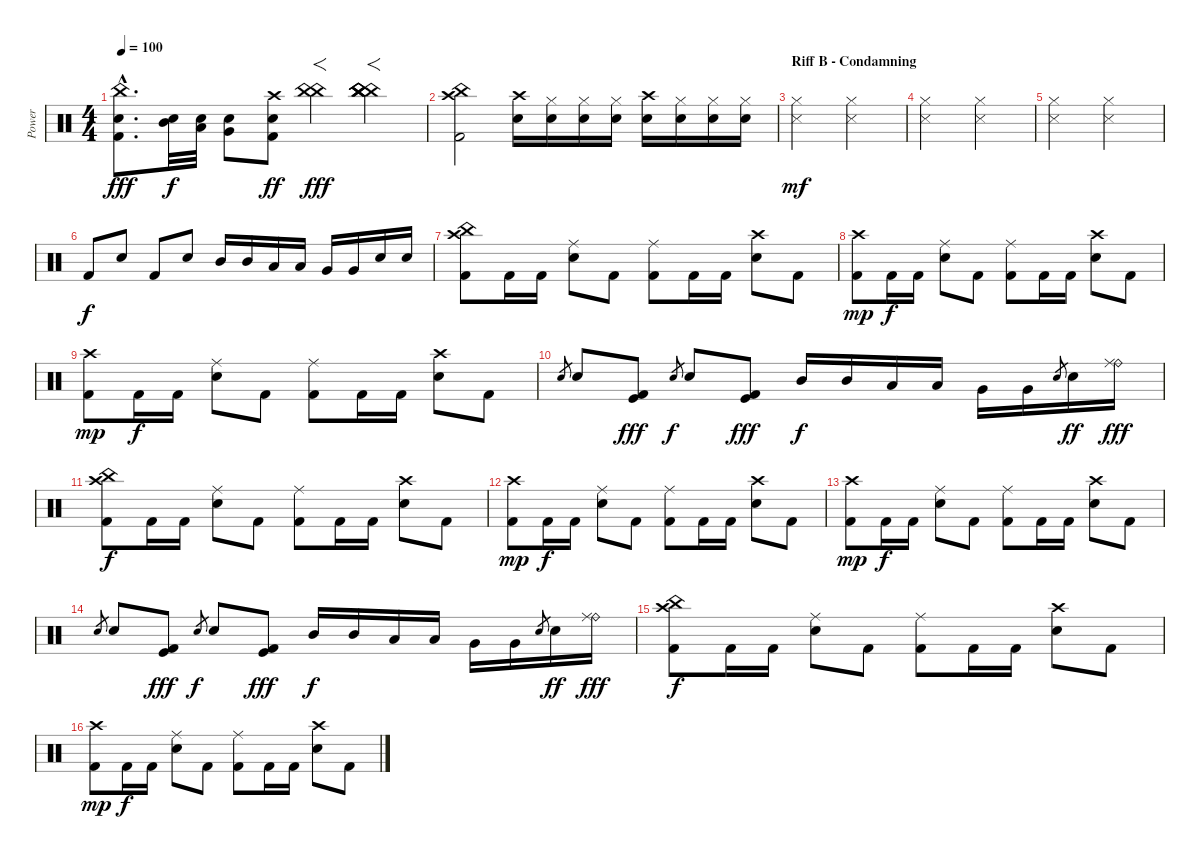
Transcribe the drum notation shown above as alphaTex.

\track ("Power" "Power") {instrument percussion}
\staff {score}
\articulation defaults
\ts (4 4)
\tempo 100
\clef neutral
\ks c
("China (hit)"{hac} "Electric Snare (hit)"{hac} "Kick (hit) 2"{hac}).8{d dy fff} ("Mid Tom (hit)" "Electric Snare (hit)").32{dy f} ("Low Tom (hit)" "Electric Snare (hit)").32 ("Very Low Tom (hit)" "Electric Snare (hit)").8 ("Crash high (hit)" "Electric Snare (hit)" "Kick (hit) 2").8{dy ff} ("China (hit)" "China (hit)").4{f dy fff} ("China (hit)" "China (hit)" "China (hit)" "China (hit)" "China (hit)").4{f} |
("China (hit)" "Crash high (hit)" "Kick (hit) 2").2 ("Crash high (hit)" "Electric Snare (hit)").16 ("Hi-Hat (closed)" "Electric Snare (hit)").16 ("Hi-Hat (closed)" "Electric Snare (hit)").16 ("Hi-Hat (closed)" "Electric Snare (hit)").16 ("Crash high (hit)" "Electric Snare (hit)").16 ("Hi-Hat (closed)" "Electric Snare (hit)").16 ("Hi-Hat (closed)" "Electric Snare (hit)").16 ("Hi-Hat (closed)" "Electric Snare (hit)").16 |
\section ("" "Riff B - Condamning")
("Hi-Hat (closed)" "Snare (side stick) 3").2{dy mf} ("Hi-Hat (closed)" "Snare (side stick) 3").2 |
("Hi-Hat (closed)" "Snare (side stick) 3").2 ("Hi-Hat (closed)" "Snare (side stick) 3").2 |
("Hi-Hat (closed)" "Snare (side stick) 3").2 ("Hi-Hat (closed)" "Snare (side stick) 3").2 |
"Kick (hit) 2".8{dy f} "Electric Snare (hit)".8 "Kick (hit) 2".8 "Electric Snare (hit)".8 "Mid Tom (hit)".16 "Mid Tom (hit)".16 "Low Tom (hit)".16 "Low Tom (hit)".16 "Very Low Tom (hit)".16 "Very Low Tom (hit)".16 "Electric Snare (hit)".16 "Electric Snare (hit)".16 |
("China (hit)" "Crash high (hit)" "Kick (hit) 2").8 "Kick (hit) 2".16 "Kick (hit) 2".16 ("Ride (middle)" "Electric Snare (hit)").8 "Kick (hit) 2".8 ("Ride (middle)" "Kick (hit) 2").8 "Kick (hit) 2".16 "Kick (hit) 2".16 ("Crash high (hit)" "Electric Snare (hit)").8 "Kick (hit) 2".8 |
("Crash high (hit)" "Kick (hit) 2").8{dy mp} "Kick (hit) 2".16{dy f} "Kick (hit) 2".16 ("Ride (middle)" "Electric Snare (hit)").8 "Kick (hit) 2".8 ("Ride (middle)" "Kick (hit) 2").8 "Kick (hit) 2".16 "Kick (hit) 2".16 ("Crash high (hit)" "Electric Snare (hit)").8 "Kick (hit) 2".8 |
("Crash high (hit)" "Kick (hit) 2").8{dy mp} "Kick (hit) 2".16{dy f} "Kick (hit) 2".16 ("Ride (middle)" "Electric Snare (hit)").8 "Kick (hit) 2".8 ("Ride (middle)" "Kick (hit) 2").8 "Kick (hit) 2".16 "Kick (hit) 2".16 ("Crash high (hit)" "Electric Snare (hit)").8 "Kick (hit) 2".8 |
"Electric Snare (hit)".8{gr} "Electric Snare (hit)".8 ("Kick (hit)" "Kick (hit) 2").8{dy fff} "Electric Snare (hit)".8{gr dy f} "Electric Snare (hit)".8 ("Kick (hit)" "Kick (hit) 2").8{dy fff} "Mid Tom (hit)".16{dy f} "Mid Tom (hit)".16 "Low Tom (hit)".16 "Low Tom (hit)".16 "Very Low Tom (hit)".16 "Very Low Tom (hit)".16 "Electric Snare (hit)".8{gr} "Electric Snare (hit)".16{dy ff} ("Ride (bell)" "Ride (middle)").16{dy fff} |
("China (hit)" "Crash high (hit)" "Kick (hit) 2").8{dy f} "Kick (hit) 2".16 "Kick (hit) 2".16 ("Ride (middle)" "Electric Snare (hit)").8 "Kick (hit) 2".8 ("Ride (middle)" "Kick (hit) 2").8 "Kick (hit) 2".16 "Kick (hit) 2".16 ("Crash high (hit)" "Electric Snare (hit)").8 "Kick (hit) 2".8 |
("Crash high (hit)" "Kick (hit) 2").8{dy mp} "Kick (hit) 2".16{dy f} "Kick (hit) 2".16 ("Ride (middle)" "Electric Snare (hit)").8 "Kick (hit) 2".8 ("Ride (middle)" "Kick (hit) 2").8 "Kick (hit) 2".16 "Kick (hit) 2".16 ("Crash high (hit)" "Electric Snare (hit)").8 "Kick (hit) 2".8 |
("Crash high (hit)" "Kick (hit) 2").8{dy mp} "Kick (hit) 2".16{dy f} "Kick (hit) 2".16 ("Ride (middle)" "Electric Snare (hit)").8 "Kick (hit) 2".8 ("Ride (middle)" "Kick (hit) 2").8 "Kick (hit) 2".16 "Kick (hit) 2".16 ("Crash high (hit)" "Electric Snare (hit)").8 "Kick (hit) 2".8 |
"Electric Snare (hit)".8{gr} "Electric Snare (hit)".8 ("Kick (hit)" "Kick (hit) 2").8{dy fff} "Electric Snare (hit)".8{gr dy f} "Electric Snare (hit)".8 ("Kick (hit)" "Kick (hit) 2").8{dy fff} "Mid Tom (hit)".16{dy f} "Mid Tom (hit)".16 "Low Tom (hit)".16 "Low Tom (hit)".16 "Very Low Tom (hit)".16 "Very Low Tom (hit)".16 "Electric Snare (hit)".8{gr} "Electric Snare (hit)".16{dy ff} ("Ride (bell)" "Ride (middle)").16{dy fff} |
("China (hit)" "Crash high (hit)" "Kick (hit) 2").8{dy f} "Kick (hit) 2".16 "Kick (hit) 2".16 ("Ride (middle)" "Electric Snare (hit)").8 "Kick (hit) 2".8 ("Ride (middle)" "Kick (hit) 2").8 "Kick (hit) 2".16 "Kick (hit) 2".16 ("Crash high (hit)" "Electric Snare (hit)").8 "Kick (hit) 2".8 |
("Crash high (hit)" "Kick (hit) 2").8{dy mp} "Kick (hit) 2".16{dy f} "Kick (hit) 2".16 ("Ride (middle)" "Electric Snare (hit)").8 "Kick (hit) 2".8 ("Ride (middle)" "Kick (hit) 2").8 "Kick (hit) 2".16 "Kick (hit) 2".16 ("Crash high (hit)" "Electric Snare (hit)").8 "Kick (hit) 2".8
